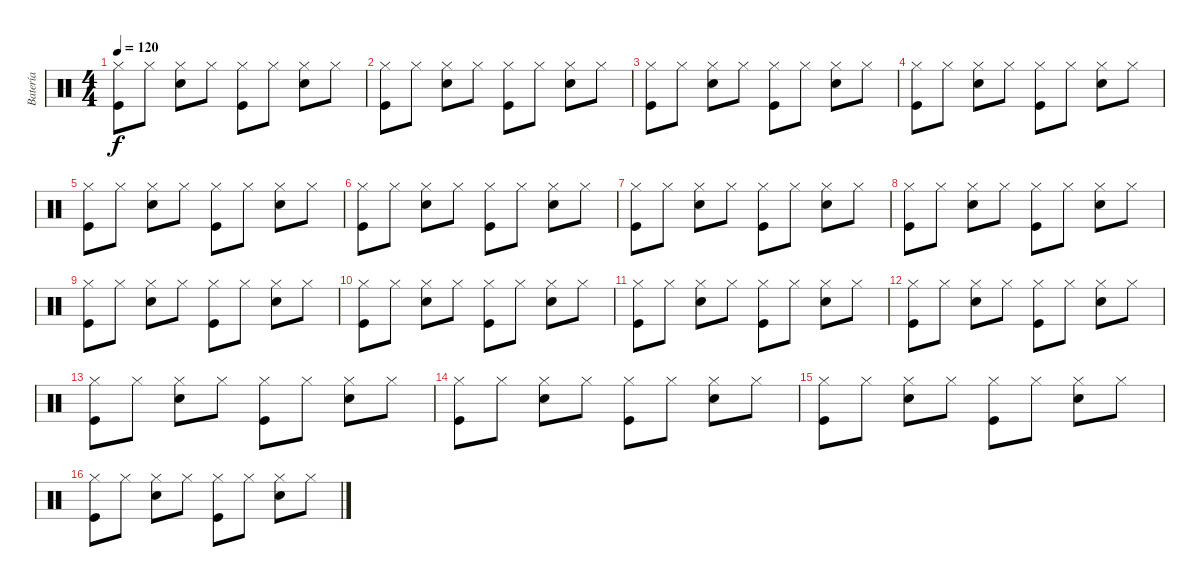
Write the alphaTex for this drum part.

\track ("Batería" "Batería") {instrument percussion}
\staff {score}
\articulation defaults
\ts (4 4)
\tempo 120
\clef neutral
\ks c
("Hi-Hat (closed)" "Kick (hit)").8{dy f} "Hi-Hat (closed)".8 ("Hi-Hat (closed)" "Snare (hit) 2").8 "Hi-Hat (closed)".8 ("Hi-Hat (closed)" "Kick (hit)").8 "Hi-Hat (closed)".8 ("Hi-Hat (closed)" "Snare (hit) 2").8 "Hi-Hat (closed)".8 |
("Hi-Hat (closed)" "Kick (hit)").8 "Hi-Hat (closed)".8 ("Hi-Hat (closed)" "Snare (hit) 2").8 "Hi-Hat (closed)".8 ("Hi-Hat (closed)" "Kick (hit)").8 "Hi-Hat (closed)".8 ("Hi-Hat (closed)" "Snare (hit) 2").8 "Hi-Hat (closed)".8 |
("Hi-Hat (closed)" "Kick (hit)").8 "Hi-Hat (closed)".8 ("Hi-Hat (closed)" "Snare (hit) 2").8 "Hi-Hat (closed)".8 ("Hi-Hat (closed)" "Kick (hit)").8 "Hi-Hat (closed)".8 ("Hi-Hat (closed)" "Snare (hit) 2").8 "Hi-Hat (closed)".8 |
("Hi-Hat (closed)" "Kick (hit)").8 "Hi-Hat (closed)".8 ("Hi-Hat (closed)" "Snare (hit) 2").8 "Hi-Hat (closed)".8 ("Hi-Hat (closed)" "Kick (hit)").8 "Hi-Hat (closed)".8 ("Hi-Hat (closed)" "Snare (hit) 2").8 "Hi-Hat (closed)".8 |
("Hi-Hat (closed)" "Kick (hit)").8 "Hi-Hat (closed)".8 ("Hi-Hat (closed)" "Snare (hit) 2").8 "Hi-Hat (closed)".8 ("Hi-Hat (closed)" "Kick (hit)").8 "Hi-Hat (closed)".8 ("Hi-Hat (closed)" "Snare (hit) 2").8 "Hi-Hat (closed)".8 |
("Hi-Hat (closed)" "Kick (hit)").8 "Hi-Hat (closed)".8 ("Hi-Hat (closed)" "Snare (hit) 2").8 "Hi-Hat (closed)".8 ("Hi-Hat (closed)" "Kick (hit)").8 "Hi-Hat (closed)".8 ("Hi-Hat (closed)" "Snare (hit) 2").8 "Hi-Hat (closed)".8 |
("Hi-Hat (closed)" "Kick (hit)").8 "Hi-Hat (closed)".8 ("Hi-Hat (closed)" "Snare (hit) 2").8 "Hi-Hat (closed)".8 ("Hi-Hat (closed)" "Kick (hit)").8 "Hi-Hat (closed)".8 ("Hi-Hat (closed)" "Snare (hit) 2").8 "Hi-Hat (closed)".8 |
("Hi-Hat (closed)" "Kick (hit)").8 "Hi-Hat (closed)".8 ("Hi-Hat (closed)" "Snare (hit) 2").8 "Hi-Hat (closed)".8 ("Hi-Hat (closed)" "Kick (hit)").8 "Hi-Hat (closed)".8 ("Hi-Hat (closed)" "Snare (hit) 2").8 "Hi-Hat (closed)".8 |
("Hi-Hat (closed)" "Kick (hit)").8 "Hi-Hat (closed)".8 ("Hi-Hat (closed)" "Snare (hit) 2").8 "Hi-Hat (closed)".8 ("Hi-Hat (closed)" "Kick (hit)").8 "Hi-Hat (closed)".8 ("Hi-Hat (closed)" "Snare (hit) 2").8 "Hi-Hat (closed)".8 |
("Hi-Hat (closed)" "Kick (hit)").8 "Hi-Hat (closed)".8 ("Hi-Hat (closed)" "Snare (hit) 2").8 "Hi-Hat (closed)".8 ("Hi-Hat (closed)" "Kick (hit)").8 "Hi-Hat (closed)".8 ("Hi-Hat (closed)" "Snare (hit) 2").8 "Hi-Hat (closed)".8 |
("Hi-Hat (closed)" "Kick (hit)").8 "Hi-Hat (closed)".8 ("Hi-Hat (closed)" "Snare (hit) 2").8 "Hi-Hat (closed)".8 ("Hi-Hat (closed)" "Kick (hit)").8 "Hi-Hat (closed)".8 ("Hi-Hat (closed)" "Snare (hit) 2").8 "Hi-Hat (closed)".8 |
("Hi-Hat (closed)" "Kick (hit)").8 "Hi-Hat (closed)".8 ("Hi-Hat (closed)" "Snare (hit) 2").8 "Hi-Hat (closed)".8 ("Hi-Hat (closed)" "Kick (hit)").8 "Hi-Hat (closed)".8 ("Hi-Hat (closed)" "Snare (hit) 2").8 "Hi-Hat (closed)".8 |
("Hi-Hat (closed)" "Kick (hit)").8 "Hi-Hat (closed)".8 ("Hi-Hat (closed)" "Snare (hit) 2").8 "Hi-Hat (closed)".8 ("Hi-Hat (closed)" "Kick (hit)").8 "Hi-Hat (closed)".8 ("Hi-Hat (closed)" "Snare (hit) 2").8 "Hi-Hat (closed)".8 |
("Hi-Hat (closed)" "Kick (hit)").8 "Hi-Hat (closed)".8 ("Hi-Hat (closed)" "Snare (hit) 2").8 "Hi-Hat (closed)".8 ("Hi-Hat (closed)" "Kick (hit)").8 "Hi-Hat (closed)".8 ("Hi-Hat (closed)" "Snare (hit) 2").8 "Hi-Hat (closed)".8 |
("Hi-Hat (closed)" "Kick (hit)").8 "Hi-Hat (closed)".8 ("Hi-Hat (closed)" "Snare (hit) 2").8 "Hi-Hat (closed)".8 ("Hi-Hat (closed)" "Kick (hit)").8 "Hi-Hat (closed)".8 ("Hi-Hat (closed)" "Snare (hit) 2").8 "Hi-Hat (closed)".8 |
("Hi-Hat (closed)" "Kick (hit)").8 "Hi-Hat (closed)".8 ("Hi-Hat (closed)" "Snare (hit) 2").8 "Hi-Hat (closed)".8 ("Hi-Hat (closed)" "Kick (hit)").8 "Hi-Hat (closed)".8 ("Hi-Hat (closed)" "Snare (hit) 2").8 "Hi-Hat (closed)".8
